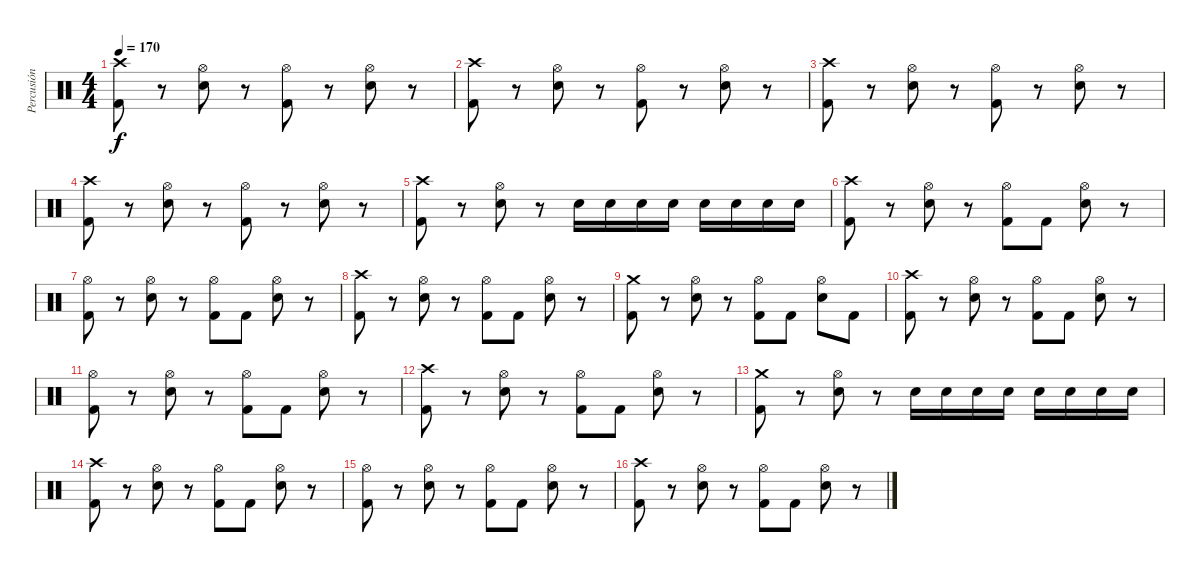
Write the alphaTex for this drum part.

\track ("Percusión" "Percusión") {instrument percussion}
\staff {score}
\articulation defaults
\ts (4 4)
\tempo 170
\clef neutral
\ks c
("Crash high (hit)" "Kick (hit) 2").8{dy f} r.8 ("Hi-Hat (open)" "Electric Snare (hit)").8 r.8 ("Hi-Hat (open)" "Kick (hit) 2").8 r.8 ("Hi-Hat (open)" "Electric Snare (hit)").8 r.8 |
("Crash high (hit)" "Kick (hit) 2").8 r.8 ("Hi-Hat (open)" "Electric Snare (hit)").8 r.8 ("Hi-Hat (open)" "Kick (hit) 2").8 r.8 ("Hi-Hat (open)" "Electric Snare (hit)").8 r.8 |
("Crash high (hit)" "Kick (hit) 2").8 r.8 ("Hi-Hat (open)" "Electric Snare (hit)").8 r.8 ("Hi-Hat (open)" "Kick (hit) 2").8 r.8 ("Hi-Hat (open)" "Electric Snare (hit)").8 r.8 |
("Crash high (hit)" "Kick (hit) 2").8 r.8 ("Hi-Hat (open)" "Electric Snare (hit)").8 r.8 ("Hi-Hat (open)" "Kick (hit) 2").8 r.8 ("Hi-Hat (open)" "Electric Snare (hit)").8 r.8 |
("Crash high (hit)" "Kick (hit) 2").8 r.8 ("Hi-Hat (open)" "Electric Snare (hit)").8 r.8 "Electric Snare (hit)".16 "Electric Snare (hit)".16 "Electric Snare (hit)".16 "Electric Snare (hit)".16 "Electric Snare (hit)".16 "Electric Snare (hit)".16 "Electric Snare (hit)".16 "Electric Snare (hit)".16 |
("Crash high (hit)" "Kick (hit) 2").8 r.8 ("Hi-Hat (open)" "Electric Snare (hit)").8 r.8 ("Hi-Hat (open)" "Kick (hit) 2").8 "Kick (hit) 2".8 ("Hi-Hat (open)" "Electric Snare (hit)").8 r.8 |
("Hi-Hat (open)" "Kick (hit) 2").8 r.8 ("Hi-Hat (open)" "Electric Snare (hit)").8 r.8 ("Hi-Hat (open)" "Kick (hit) 2").8 "Kick (hit) 2".8 ("Hi-Hat (open)" "Electric Snare (hit)").8 r.8 |
("Crash high (hit)" "Kick (hit) 2").8 r.8 ("Hi-Hat (open)" "Electric Snare (hit)").8 r.8 ("Hi-Hat (open)" "Kick (hit) 2").8 "Kick (hit) 2".8 ("Hi-Hat (open)" "Electric Snare (hit)").8 r.8 |
("Crash medium (hit)" "Kick (hit) 2").8 r.8 ("Hi-Hat (open)" "Electric Snare (hit)").8 r.8 ("Hi-Hat (open)" "Kick (hit) 2").8 "Kick (hit) 2".8 ("Hi-Hat (open)" "Electric Snare (hit)").8 "Kick (hit) 2".8 |
("Crash high (hit)" "Kick (hit) 2").8 r.8 ("Hi-Hat (open)" "Electric Snare (hit)").8 r.8 ("Hi-Hat (open)" "Kick (hit) 2").8 "Kick (hit) 2".8 ("Hi-Hat (open)" "Electric Snare (hit)").8 r.8 |
("Hi-Hat (open)" "Kick (hit) 2").8 r.8 ("Hi-Hat (open)" "Electric Snare (hit)").8 r.8 ("Hi-Hat (open)" "Kick (hit) 2").8 "Kick (hit) 2".8 ("Hi-Hat (open)" "Electric Snare (hit)").8 r.8 |
("Crash high (hit)" "Kick (hit) 2").8 r.8 ("Hi-Hat (open)" "Electric Snare (hit)").8 r.8 ("Hi-Hat (open)" "Kick (hit) 2").8 "Kick (hit) 2".8 ("Hi-Hat (open)" "Electric Snare (hit)").8 r.8 |
("Crash medium (hit)" "Kick (hit) 2").8 r.8 ("Hi-Hat (open)" "Electric Snare (hit)").8 r.8 "Electric Snare (hit)".16 "Electric Snare (hit)".16 "Electric Snare (hit)".16 "Electric Snare (hit)".16 "Electric Snare (hit)".16 "Electric Snare (hit)".16 "Electric Snare (hit)".16 "Electric Snare (hit)".16 |
("Crash high (hit)" "Kick (hit) 2").8 r.8 ("Hi-Hat (open)" "Electric Snare (hit)").8 r.8 ("Hi-Hat (open)" "Kick (hit) 2").8 "Kick (hit) 2".8 ("Hi-Hat (open)" "Electric Snare (hit)").8 r.8 |
("Hi-Hat (open)" "Kick (hit) 2").8 r.8 ("Hi-Hat (open)" "Electric Snare (hit)").8 r.8 ("Hi-Hat (open)" "Kick (hit) 2").8 "Kick (hit) 2".8 ("Hi-Hat (open)" "Electric Snare (hit)").8 r.8 |
("Crash high (hit)" "Kick (hit) 2").8 r.8 ("Hi-Hat (open)" "Electric Snare (hit)").8 r.8 ("Hi-Hat (open)" "Kick (hit) 2").8 "Kick (hit) 2".8 ("Hi-Hat (open)" "Electric Snare (hit)").8 r.8
